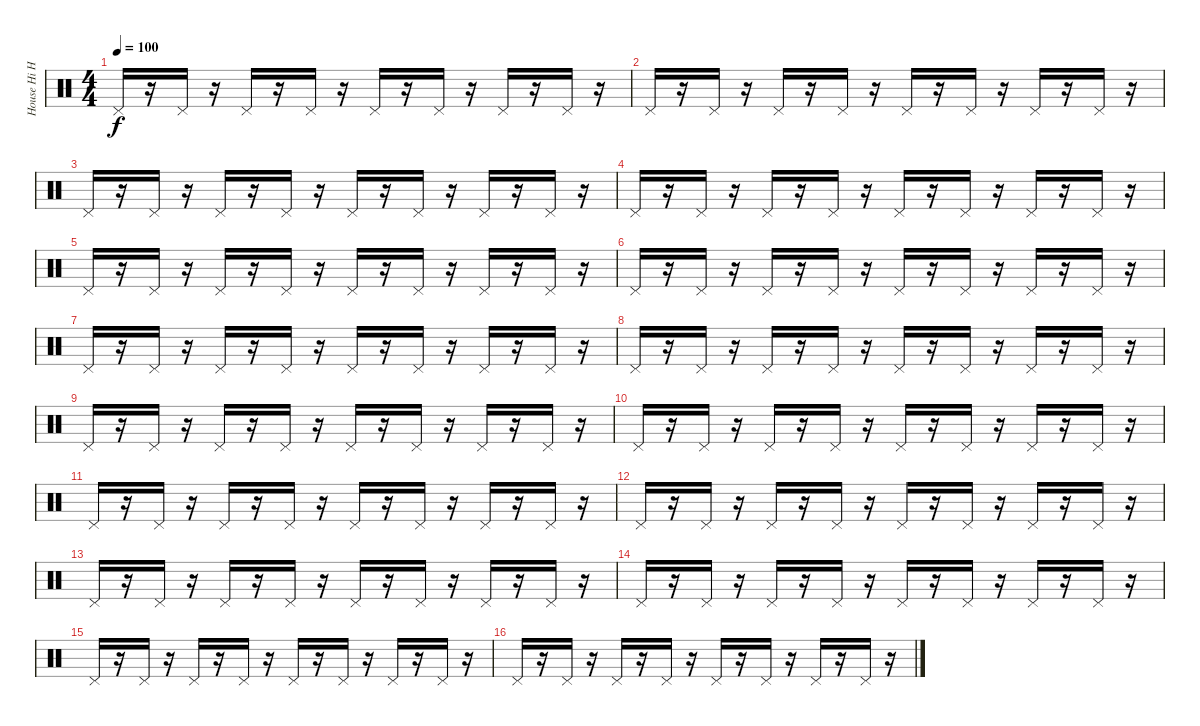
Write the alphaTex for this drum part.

\track ("House Hi Hat" "House Hi H") {instrument percussion}
\staff {score}
\articulation defaults
\ts (4 4)
\tempo 100
\clef neutral
\ks c "Pedal Hi-Hat (hit)".16{dy f}
r.16 "Pedal Hi-Hat (hit)".16 r.16 "Pedal Hi-Hat (hit)".16 r.16 "Pedal Hi-Hat (hit)".16 r.16 "Pedal Hi-Hat (hit)".16 r.16 "Pedal Hi-Hat (hit)".16 r.16 "Pedal Hi-Hat (hit)".16 r.16 "Pedal Hi-Hat (hit)".16 r.16 |
"Pedal Hi-Hat (hit)".16 r.16 "Pedal Hi-Hat (hit)".16 r.16 "Pedal Hi-Hat (hit)".16 r.16 "Pedal Hi-Hat (hit)".16 r.16 "Pedal Hi-Hat (hit)".16 r.16 "Pedal Hi-Hat (hit)".16 r.16 "Pedal Hi-Hat (hit)".16 r.16 "Pedal Hi-Hat (hit)".16 r.16 |
"Pedal Hi-Hat (hit)".16 r.16 "Pedal Hi-Hat (hit)".16 r.16 "Pedal Hi-Hat (hit)".16 r.16 "Pedal Hi-Hat (hit)".16 r.16 "Pedal Hi-Hat (hit)".16 r.16 "Pedal Hi-Hat (hit)".16 r.16 "Pedal Hi-Hat (hit)".16 r.16 "Pedal Hi-Hat (hit)".16 r.16 |
"Pedal Hi-Hat (hit)".16 r.16 "Pedal Hi-Hat (hit)".16 r.16 "Pedal Hi-Hat (hit)".16 r.16 "Pedal Hi-Hat (hit)".16 r.16 "Pedal Hi-Hat (hit)".16 r.16 "Pedal Hi-Hat (hit)".16 r.16 "Pedal Hi-Hat (hit)".16 r.16 "Pedal Hi-Hat (hit)".16 r.16 |
"Pedal Hi-Hat (hit)".16 r.16 "Pedal Hi-Hat (hit)".16 r.16 "Pedal Hi-Hat (hit)".16 r.16 "Pedal Hi-Hat (hit)".16 r.16 "Pedal Hi-Hat (hit)".16 r.16 "Pedal Hi-Hat (hit)".16 r.16 "Pedal Hi-Hat (hit)".16 r.16 "Pedal Hi-Hat (hit)".16 r.16 |
"Pedal Hi-Hat (hit)".16 r.16 "Pedal Hi-Hat (hit)".16 r.16 "Pedal Hi-Hat (hit)".16 r.16 "Pedal Hi-Hat (hit)".16 r.16 "Pedal Hi-Hat (hit)".16 r.16 "Pedal Hi-Hat (hit)".16 r.16 "Pedal Hi-Hat (hit)".16 r.16 "Pedal Hi-Hat (hit)".16 r.16 |
"Pedal Hi-Hat (hit)".16 r.16 "Pedal Hi-Hat (hit)".16 r.16 "Pedal Hi-Hat (hit)".16 r.16 "Pedal Hi-Hat (hit)".16 r.16 "Pedal Hi-Hat (hit)".16 r.16 "Pedal Hi-Hat (hit)".16 r.16 "Pedal Hi-Hat (hit)".16 r.16 "Pedal Hi-Hat (hit)".16 r.16 |
"Pedal Hi-Hat (hit)".16 r.16 "Pedal Hi-Hat (hit)".16 r.16 "Pedal Hi-Hat (hit)".16 r.16 "Pedal Hi-Hat (hit)".16 r.16 "Pedal Hi-Hat (hit)".16 r.16 "Pedal Hi-Hat (hit)".16 r.16 "Pedal Hi-Hat (hit)".16 r.16 "Pedal Hi-Hat (hit)".16 r.16 |
"Pedal Hi-Hat (hit)".16 r.16 "Pedal Hi-Hat (hit)".16 r.16 "Pedal Hi-Hat (hit)".16 r.16 "Pedal Hi-Hat (hit)".16 r.16 "Pedal Hi-Hat (hit)".16 r.16 "Pedal Hi-Hat (hit)".16 r.16 "Pedal Hi-Hat (hit)".16 r.16 "Pedal Hi-Hat (hit)".16 r.16 |
"Pedal Hi-Hat (hit)".16 r.16 "Pedal Hi-Hat (hit)".16 r.16 "Pedal Hi-Hat (hit)".16 r.16 "Pedal Hi-Hat (hit)".16 r.16 "Pedal Hi-Hat (hit)".16 r.16 "Pedal Hi-Hat (hit)".16 r.16 "Pedal Hi-Hat (hit)".16 r.16 "Pedal Hi-Hat (hit)".16 r.16 |
"Pedal Hi-Hat (hit)".16 r.16 "Pedal Hi-Hat (hit)".16 r.16 "Pedal Hi-Hat (hit)".16 r.16 "Pedal Hi-Hat (hit)".16 r.16 "Pedal Hi-Hat (hit)".16 r.16 "Pedal Hi-Hat (hit)".16 r.16 "Pedal Hi-Hat (hit)".16 r.16 "Pedal Hi-Hat (hit)".16 r.16 |
"Pedal Hi-Hat (hit)".16 r.16 "Pedal Hi-Hat (hit)".16 r.16 "Pedal Hi-Hat (hit)".16 r.16 "Pedal Hi-Hat (hit)".16 r.16 "Pedal Hi-Hat (hit)".16 r.16 "Pedal Hi-Hat (hit)".16 r.16 "Pedal Hi-Hat (hit)".16 r.16 "Pedal Hi-Hat (hit)".16 r.16 |
"Pedal Hi-Hat (hit)".16 r.16 "Pedal Hi-Hat (hit)".16 r.16 "Pedal Hi-Hat (hit)".16 r.16 "Pedal Hi-Hat (hit)".16 r.16 "Pedal Hi-Hat (hit)".16 r.16 "Pedal Hi-Hat (hit)".16 r.16 "Pedal Hi-Hat (hit)".16 r.16 "Pedal Hi-Hat (hit)".16 r.16 |
"Pedal Hi-Hat (hit)".16 r.16 "Pedal Hi-Hat (hit)".16 r.16 "Pedal Hi-Hat (hit)".16 r.16 "Pedal Hi-Hat (hit)".16 r.16 "Pedal Hi-Hat (hit)".16 r.16 "Pedal Hi-Hat (hit)".16 r.16 "Pedal Hi-Hat (hit)".16 r.16 "Pedal Hi-Hat (hit)".16 r.16 |
"Pedal Hi-Hat (hit)".16 r.16 "Pedal Hi-Hat (hit)".16 r.16 "Pedal Hi-Hat (hit)".16 r.16 "Pedal Hi-Hat (hit)".16 r.16 "Pedal Hi-Hat (hit)".16 r.16 "Pedal Hi-Hat (hit)".16 r.16 "Pedal Hi-Hat (hit)".16 r.16 "Pedal Hi-Hat (hit)".16 r.16 |
"Pedal Hi-Hat (hit)".16 r.16 "Pedal Hi-Hat (hit)".16 r.16 "Pedal Hi-Hat (hit)".16 r.16 "Pedal Hi-Hat (hit)".16 r.16 "Pedal Hi-Hat (hit)".16 r.16 "Pedal Hi-Hat (hit)".16 r.16 "Pedal Hi-Hat (hit)".16 r.16 "Pedal Hi-Hat (hit)".16 r.16
